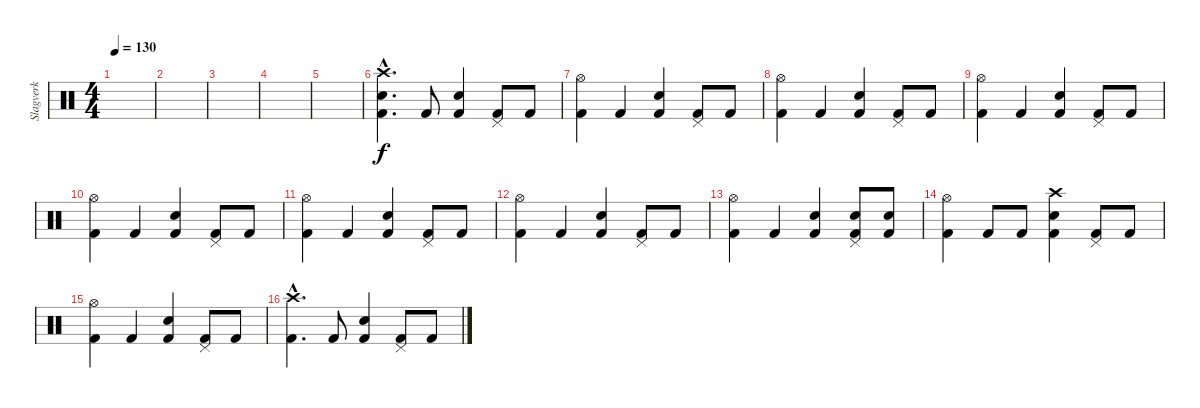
\track ("Slagverk" "Slagverk") {instrument percussion}
\staff {score}
\articulation defaults
\ts (4 4)
\tempo 130
\clef neutral
\ks c
|
|
|
|
|
("Crash high (hit)"{hac} "Electric Snare (hit)"{hac} "Kick (hit) 2"{hac}).4{d} "Kick (hit) 2".8 ("Electric Snare (hit)" "Kick (hit) 2").4 ("Pedal Hi-Hat (hit)" "Kick (hit) 2").8 "Kick (hit) 2".8 |
("Hi-Hat (open)" "Kick (hit) 2").4 "Kick (hit) 2".4 ("Electric Snare (hit)" "Kick (hit) 2").4 ("Pedal Hi-Hat (hit)" "Kick (hit) 2").8 "Kick (hit) 2".8 |
("Hi-Hat (open)" "Kick (hit) 2").4 "Kick (hit) 2".4 ("Electric Snare (hit)" "Kick (hit) 2").4 ("Pedal Hi-Hat (hit)" "Kick (hit) 2").8 "Kick (hit) 2".8 |
("Hi-Hat (open)" "Kick (hit) 2").4 "Kick (hit) 2".4 ("Electric Snare (hit)" "Kick (hit) 2").4 ("Pedal Hi-Hat (hit)" "Kick (hit) 2").8 "Kick (hit) 2".8 |
("Hi-Hat (open)" "Kick (hit) 2").4 "Kick (hit) 2".4 ("Electric Snare (hit)" "Kick (hit) 2").4 ("Pedal Hi-Hat (hit)" "Kick (hit) 2").8 "Kick (hit) 2".8 |
("Hi-Hat (open)" "Kick (hit) 2").4 "Kick (hit) 2".4 ("Electric Snare (hit)" "Kick (hit) 2").4 ("Pedal Hi-Hat (hit)" "Kick (hit) 2").8 "Kick (hit) 2".8 |
("Hi-Hat (open)" "Kick (hit) 2").4 "Kick (hit) 2".4 ("Electric Snare (hit)" "Kick (hit) 2").4 ("Pedal Hi-Hat (hit)" "Kick (hit) 2").8 "Kick (hit) 2".8 |
("Hi-Hat (open)" "Kick (hit) 2").4 "Kick (hit) 2".4 ("Electric Snare (hit)" "Kick (hit) 2").4 ("Pedal Hi-Hat (hit)" "Electric Snare (hit)" "Kick (hit) 2").8 ("Electric Snare (hit)" "Kick (hit) 2").8 |
("Hi-Hat (open)" "Kick (hit) 2").4 "Kick (hit) 2".8 "Kick (hit) 2".8 ("Crash high (hit)" "Electric Snare (hit)" "Kick (hit) 2").4 ("Pedal Hi-Hat (hit)" "Kick (hit) 2").8 "Kick (hit) 2".8 |
("Hi-Hat (open)" "Kick (hit) 2").4 "Kick (hit) 2".4 ("Electric Snare (hit)" "Kick (hit) 2").4 ("Pedal Hi-Hat (hit)" "Kick (hit) 2").8 "Kick (hit) 2".8 |
("Crash high (hit)"{hac} "Kick (hit) 2"{hac}).4{d} "Kick (hit) 2".8 ("Electric Snare (hit)" "Kick (hit) 2").4 ("Pedal Hi-Hat (hit)" "Kick (hit) 2").8 "Kick (hit) 2".8
